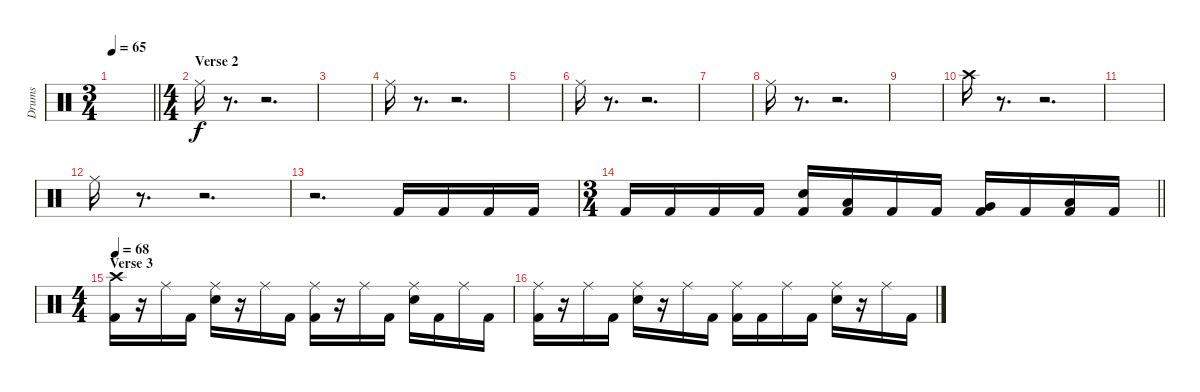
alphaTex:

\track ("Drums" "Drums") {instrument percussion}
\staff {score}
\articulation defaults
\ts (3 4)
\tempo 65
\clef neutral
\barLineRight lightlight
\ks c
|
\ts (4 4)
\section ("" "Verse 2")
"Ride (middle)".16 r.8{d} r.2{d} |
|
"Ride (middle)".16 r.8{d} r.2{d} |
|
"Ride (middle)".16 r.8{d} r.2{d} |
|
"Ride (middle)".16 r.8{d} r.2{d} |
|
"Crash high (hit)".16 r.8{d} r.2{d} |
|
"Ride (middle)".16 r.8{d} r.2{d} |
r.2{d} "Kick (hit) 2".16 "Kick (hit) 2".16 "Kick (hit) 2".16 "Kick (hit) 2".16 |
\ts (3 4)
\barLineRight lightlight "Kick (hit) 2".16 "Kick (hit) 2".16 "Kick (hit) 2".16 "Kick (hit) 2".16
("Snare (hit) 2" "Kick (hit) 2").16 ("Low Tom (hit)" "Kick (hit) 2").16 "Kick (hit) 2".16 "Kick (hit) 2".16 ("Very Low Tom (hit)" "Kick (hit) 2").16 "Kick (hit) 2".16 ("Low Floor Tom (hit)" "Kick (hit) 2").16 "Kick (hit) 2".16 |
\ts (4 4)
\section ("" "Verse 3")
\tempo 68
("Crash high (hit)" "Kick (hit) 2").16 r.16 "Ride (middle)".16 "Kick (hit) 2".16 ("Ride (middle)" "Snare (hit) 2").16 r.16 "Ride (middle)".16 "Kick (hit) 2".16 ("Ride (middle)" "Kick (hit) 2").16 r.16 "Ride (middle)".16 "Kick (hit) 2".16 ("Ride (middle)" "Snare (hit) 2").16 "Kick (hit) 2".16 "Ride (middle)".16 "Kick (hit) 2".16 |
("Ride (middle)" "Kick (hit) 2").16 r.16 "Ride (middle)".16 "Kick (hit) 2".16 ("Ride (middle)" "Snare (hit) 2").16 r.16 "Ride (middle)".16 "Kick (hit) 2".16 ("Ride (middle)" "Kick (hit) 2").16 "Kick (hit) 2".16 "Ride (middle)".16 "Kick (hit) 2".16 ("Ride (middle)" "Snare (hit) 2").16 r.16 "Ride (middle)".16 "Kick (hit) 2".16
